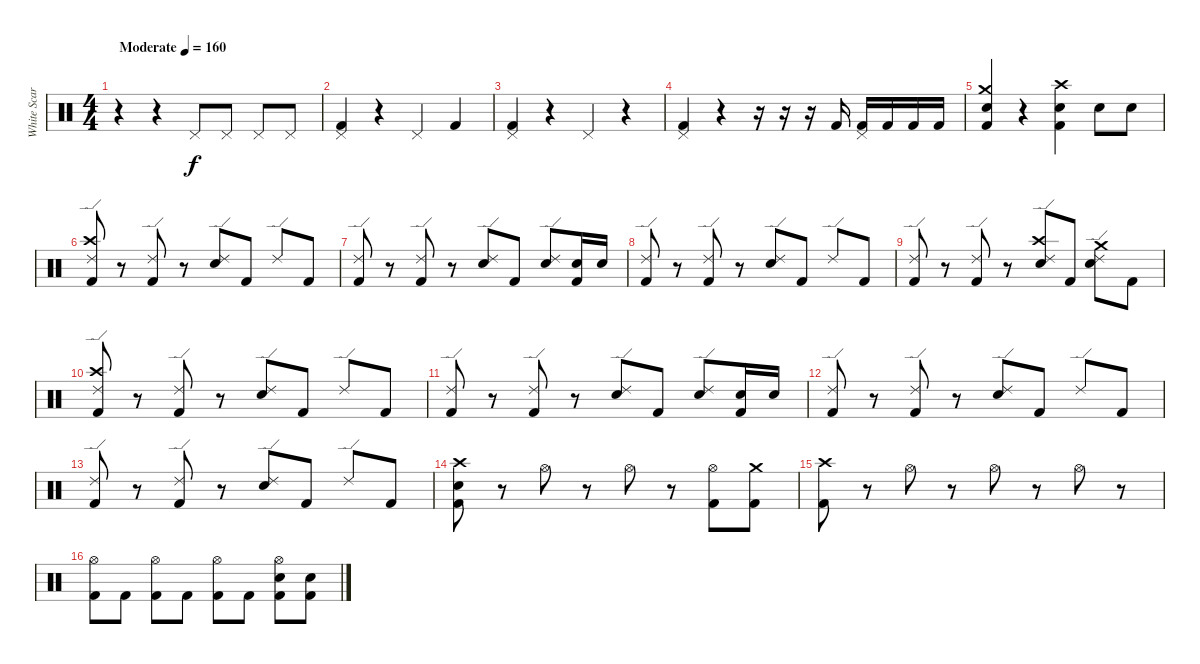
\track ("White Scar" "White Scar") {instrument percussion}
\staff {score}
\articulation defaults
\ts (4 4)
\tempo (160 "Moderate")
\clef neutral
\ks c
r.4{dy f} r.4 "Pedal Hi-Hat (hit)".8 "Pedal Hi-Hat (hit)".8 "Pedal Hi-Hat (hit)".8 "Pedal Hi-Hat (hit)".8 |
("Pedal Hi-Hat (hit)" "Kick (hit) 2").4 r.4 "Pedal Hi-Hat (hit)".4 "Kick (hit) 2".4 |
("Pedal Hi-Hat (hit)" "Kick (hit) 2").4 r.4 "Pedal Hi-Hat (hit)".4 r.4 |
("Pedal Hi-Hat (hit)" "Kick (hit) 2").4 r.4 r.16 r.16 r.16 "Kick (hit) 2".16 ("Pedal Hi-Hat (hit)" "Kick (hit) 2").16 "Kick (hit) 2".16 "Kick (hit) 2".16 "Kick (hit) 2".16 |
("Crash medium (hit)" "Snare (hit) 2" "Kick (hit) 2").4 r.4 ("Crash high (hit)" "Snare (hit) 2" "Kick (hit) 2").4 "Snare (hit) 2".8 "Snare (hit) 2".8 |
("Crash high (hit)" "Ride (edge) 2" "Kick (hit) 2").8 r.8 ("Ride (edge) 2" "Kick (hit) 2").8 r.8 ("Snare (hit) 2" "Ride (edge) 2").8 "Kick (hit) 2".8 "Ride (edge) 2".8 "Kick (hit) 2".8 |
("Ride (edge) 2" "Kick (hit) 2").8 r.8 ("Ride (edge) 2" "Kick (hit) 2").8 r.8 ("Snare (hit) 2" "Ride (edge) 2").8 "Kick (hit) 2".8 ("Snare (hit) 2" "Ride (edge) 2").8 ("Snare (hit) 2" "Kick (hit) 2").16 "Snare (hit) 2".16 |
("Ride (edge) 2" "Kick (hit) 2").8 r.8 ("Ride (edge) 2" "Kick (hit) 2").8 r.8 ("Snare (hit) 2" "Ride (edge) 2").8 "Kick (hit) 2".8 "Ride (edge) 2".8 "Kick (hit) 2".8 |
("Ride (edge) 2" "Kick (hit) 2").8 r.8 ("Ride (edge) 2" "Kick (hit) 2").8 r.8 ("Crash high (hit)" "Snare (hit) 2" "Ride (edge) 2").8 "Kick (hit) 2".8 ("Crash medium (hit)" "Snare (hit) 2" "Ride (edge) 2").8 "Kick (hit) 2".8 |
("Crash high (hit)" "Ride (edge) 2" "Kick (hit) 2").8 r.8 ("Ride (edge) 2" "Kick (hit) 2").8 r.8 ("Snare (hit) 2" "Ride (edge) 2").8 "Kick (hit) 2".8 "Ride (edge) 2".8 "Kick (hit) 2".8 |
("Ride (edge) 2" "Kick (hit) 2").8 r.8 ("Ride (edge) 2" "Kick (hit) 2").8 r.8 ("Snare (hit) 2" "Ride (edge) 2").8 "Kick (hit) 2".8 ("Snare (hit) 2" "Ride (edge) 2").8 ("Snare (hit) 2" "Kick (hit) 2").16 "Snare (hit) 2".16 |
("Ride (edge) 2" "Kick (hit) 2").8 r.8 ("Ride (edge) 2" "Kick (hit) 2").8 r.8 ("Snare (hit) 2" "Ride (edge) 2").8 "Kick (hit) 2".8 "Ride (edge) 2".8 "Kick (hit) 2".8 |
("Ride (edge) 2" "Kick (hit) 2").8 r.8 ("Ride (edge) 2" "Kick (hit) 2").8 r.8 ("Snare (hit) 2" "Ride (edge) 2").8 "Kick (hit) 2".8 "Ride (edge) 2".8 "Kick (hit) 2".8 |
("Crash high (hit)" "Snare (hit) 2" "Kick (hit) 2").8 r.8 "Hi-Hat (open)".8 r.8 "Hi-Hat (open)".8 r.8 ("Hi-Hat (open)" "Kick (hit) 2").8 ("Crash medium (hit)" "Kick (hit) 2").8 |
("Crash high (hit)" "Kick (hit) 2").8 r.8 "Hi-Hat (open)".8 r.8 "Hi-Hat (open)".8 r.8 "Hi-Hat (open)".8 r.8 |
("Hi-Hat (open)" "Kick (hit) 2").8 "Kick (hit) 2".8 ("Hi-Hat (open)" "Kick (hit) 2").8 "Kick (hit) 2".8 ("Hi-Hat (open)" "Kick (hit) 2").8 "Kick (hit) 2".8 ("Hi-Hat (open)" "Snare (hit) 2" "Kick (hit) 2").8 ("Snare (hit) 2" "Kick (hit) 2").8
